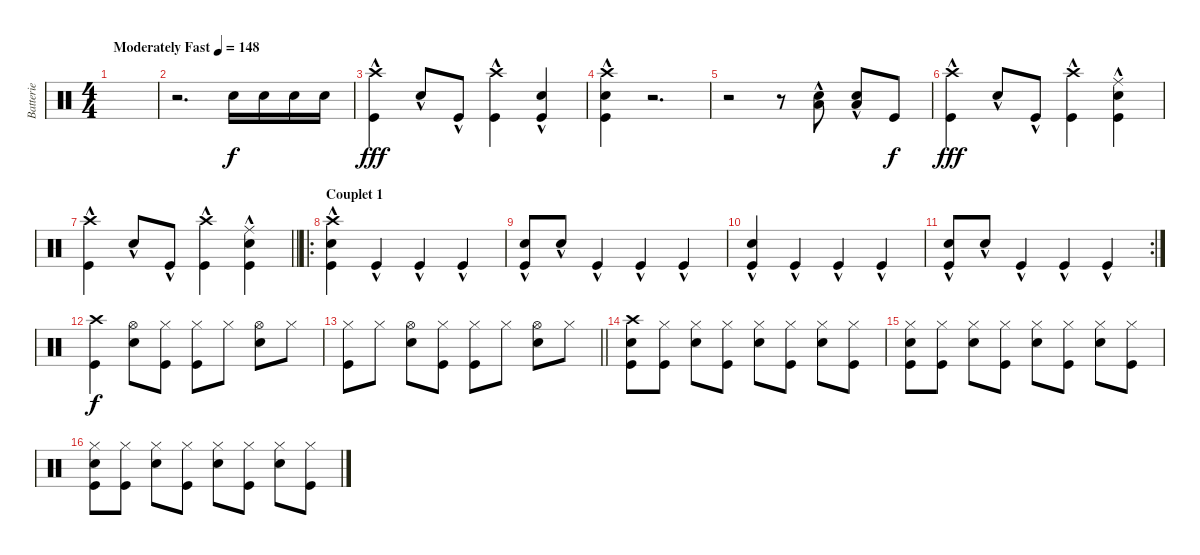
\track ("Batterie" "Batterie") {instrument percussion}
\staff {score}
\articulation defaults
\ts (4 4)
\tempo (148 "Moderately Fast")
\clef neutral
\ks c
|
r.2{d} "Snare (hit) 2".16 "Snare (hit) 2".16 "Snare (hit) 2".16 "Snare (hit) 2".16 |
("Kick (hit)"{hac} "Crash high (hit)").4{dy fff} "Snare (hit) 2"{hac}.8 "Kick (hit)"{hac}.8 ("Kick (hit)"{hac} "Crash high (hit)").4 ("Snare (hit) 2"{hac} "Kick (hit)"{hac}).4 |
("Kick (hit)"{hac} "Crash high (hit)" "Snare (hit) 2").4 r.2{d} |
r.2 r.8 ("Snare (hit) 2"{hac} "Low Floor Tom (hit)").8 ("Snare (hit) 2"{hac} "Low Floor Tom (hit)").8 "Kick (hit)".8{dy f} |
("Kick (hit)"{hac} "Crash high (hit)").4{dy fff} "Snare (hit) 2"{hac}.8 "Kick (hit)"{hac}.8 ("Kick (hit)"{hac} "Crash high (hit)").4 ("Snare (hit) 2"{hac} "Kick (hit)"{hac} "Ride (middle)").4 |
\barLineRight lightlight
("Kick (hit)"{hac} "Crash high (hit)").4 "Snare (hit) 2"{hac}.8 "Kick (hit)"{hac}.8 ("Kick (hit)"{hac} "Crash high (hit)").4 ("Snare (hit) 2"{hac} "Kick (hit)"{hac} "Ride (middle)").4 |
\ro
\section ("" "Couplet 1")
("Kick (hit)"{hac} "Crash high (hit)" "Snare (hit) 2").4 "Kick (hit)"{hac}.4 "Kick (hit)"{hac}.4 "Kick (hit)"{hac}.4 |
("Kick (hit)"{hac} "Snare (hit) 2"{hac}).8 "Snare (hit) 2"{hac}.8 "Kick (hit)"{hac}.4 "Kick (hit)"{hac}.4 "Kick (hit)"{hac}.4 |
("Kick (hit)"{hac} "Snare (hit) 2"{hac}).4 "Kick (hit)"{hac}.4 "Kick (hit)"{hac}.4 "Kick (hit)"{hac}.4 |
\rc 2
("Kick (hit)"{hac} "Snare (hit) 2"{hac}).8 "Snare (hit) 2"{hac}.8 "Kick (hit)"{hac}.4 "Kick (hit)"{hac}.4 "Kick (hit)"{hac}.4 |
("Kick (hit)" "Crash high (hit)").4{dy f} ("Snare (hit) 2" "Hi-Hat (open)").8 ("Kick (hit)" "Hi-Hat (closed)").8 ("Kick (hit)" "Hi-Hat (closed)").8 "Hi-Hat (closed)".8 ("Snare (hit) 2" "Hi-Hat (open)").8 "Hi-Hat (closed)".8 |
\barLineRight lightlight
("Kick (hit)" "Hi-Hat (closed)").8 "Hi-Hat (closed)".8 ("Snare (hit) 2" "Hi-Hat (open)").8 ("Hi-Hat (closed)" "Kick (hit)").8 ("Kick (hit)" "Hi-Hat (closed)").8 "Hi-Hat (closed)".8 ("Hi-Hat (open)" "Snare (hit) 2").8 "Hi-Hat (closed)".8 |
("Crash high (hit)" "Snare (hit) 2" "Kick (hit)").8 ("Kick (hit)" "Hi-Hat (closed)").8 ("Hi-Hat (closed)" "Snare (hit) 2").8 ("Kick (hit)" "Hi-Hat (closed)").8 ("Snare (hit) 2" "Hi-Hat (closed)").8 ("Kick (hit)" "Hi-Hat (closed)").8 ("Snare (hit) 2" "Hi-Hat (closed)").8 ("Kick (hit)" "Hi-Hat (closed)").8 |
("Hi-Hat (closed)" "Snare (hit) 2" "Kick (hit)").8 ("Kick (hit)" "Hi-Hat (closed)").8 ("Hi-Hat (closed)" "Snare (hit) 2").8 ("Kick (hit)" "Hi-Hat (closed)").8 ("Snare (hit) 2" "Hi-Hat (closed)").8 ("Kick (hit)" "Hi-Hat (closed)").8 ("Snare (hit) 2" "Hi-Hat (closed)").8 ("Kick (hit)" "Hi-Hat (closed)").8 |
("Hi-Hat (closed)" "Snare (hit) 2" "Kick (hit)").8 ("Kick (hit)" "Hi-Hat (closed)").8 ("Hi-Hat (closed)" "Snare (hit) 2").8 ("Kick (hit)" "Hi-Hat (closed)").8 ("Snare (hit) 2" "Hi-Hat (closed)").8 ("Kick (hit)" "Hi-Hat (closed)").8 ("Snare (hit) 2" "Hi-Hat (closed)").8 ("Kick (hit)" "Hi-Hat (closed)").8
